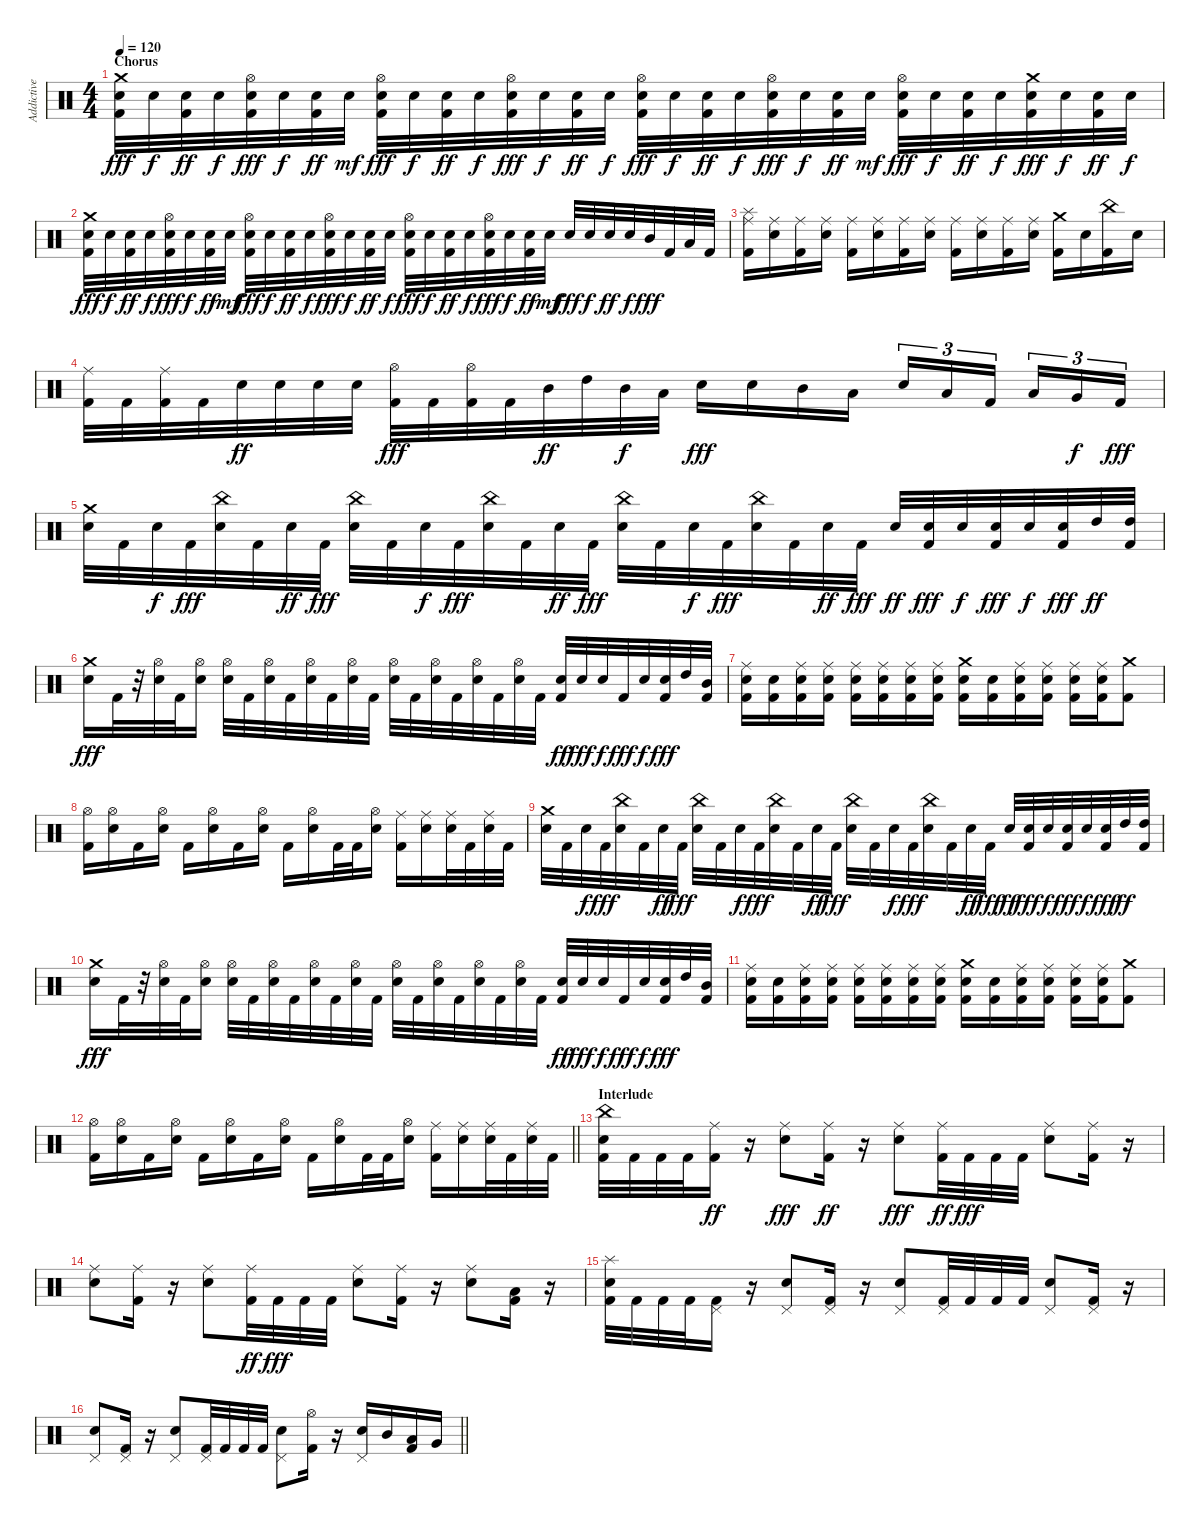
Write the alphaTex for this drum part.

\track ("Addictive Drums 07" "Addictive ") {instrument percussion}
\staff {score}
\articulation defaults
\ts (4 4)
\section ("" "Chorus")
\tempo 120
\clef neutral
\ks c
("Kick (hit) 2" "Snare (hit) 2" "Crash medium (hit)").32{dy fff} "Snare (hit) 2".32{dy f} ("Kick (hit) 2" "Snare (hit) 2").32{dy ff} "Snare (hit) 2".32{dy f} ("Kick (hit) 2" "Snare (hit) 2" "Hi-Hat (open)").32{dy fff} "Snare (hit) 2".32{dy f} ("Kick (hit) 2" "Snare (hit) 2").32{dy ff} "Snare (hit) 2".32{dy mf} ("Kick (hit) 2" "Snare (hit) 2" "Hi-Hat (open)").32{dy fff} "Snare (hit) 2".32{dy f} ("Kick (hit) 2" "Snare (hit) 2").32{dy ff} "Snare (hit) 2".32{dy f} ("Kick (hit) 2" "Snare (hit) 2" "Hi-Hat (open)").32{dy fff} "Snare (hit) 2".32{dy f} ("Kick (hit) 2" "Snare (hit) 2").32{dy ff} "Snare (hit) 2".32{dy f} ("Kick (hit) 2" "Snare (hit) 2" "Hi-Hat (open)").32{dy fff} "Snare (hit) 2".32{dy f} ("Kick (hit) 2" "Snare (hit) 2").32{dy ff} "Snare (hit) 2".32{dy f} ("Kick (hit) 2" "Snare (hit) 2" "Hi-Hat (open)").32{dy fff} "Snare (hit) 2".32{dy f} ("Kick (hit) 2" "Snare (hit) 2").32{dy ff} "Snare (hit) 2".32{dy mf} ("Kick (hit) 2" "Snare (hit) 2" "Hi-Hat (open)").32{dy fff} "Snare (hit) 2".32{dy f} ("Kick (hit) 2" "Snare (hit) 2").32{dy ff} "Snare (hit) 2".32{dy f} ("Kick (hit) 2" "Snare (hit) 2" "Crash medium (hit)").32{dy fff} "Snare (hit) 2".32{dy f} ("Kick (hit) 2" "Snare (hit) 2").32{dy ff} "Snare (hit) 2".32{dy f} |
("Kick (hit) 2" "Snare (hit) 2" "Crash medium (hit)").32{dy fff} "Snare (hit) 2".32{dy f} ("Kick (hit) 2" "Snare (hit) 2").32{dy ff} "Snare (hit) 2".32{dy f} ("Kick (hit) 2" "Snare (hit) 2" "Hi-Hat (open)").32{dy fff} "Snare (hit) 2".32{dy f} ("Kick (hit) 2" "Snare (hit) 2").32{dy ff} "Snare (hit) 2".32{dy mf} ("Kick (hit) 2" "Snare (hit) 2" "Hi-Hat (open)").32{dy fff} "Snare (hit) 2".32{dy f} ("Kick (hit) 2" "Snare (hit) 2").32{dy ff} "Snare (hit) 2".32{dy f} ("Kick (hit) 2" "Snare (hit) 2" "Hi-Hat (open)").32{dy fff} "Snare (hit) 2".32{dy f} ("Kick (hit) 2" "Snare (hit) 2").32{dy ff} "Snare (hit) 2".32{dy f} ("Kick (hit) 2" "Snare (hit) 2" "Hi-Hat (open)").32{dy fff} "Snare (hit) 2".32{dy f} ("Kick (hit) 2" "Snare (hit) 2").32{dy ff} "Snare (hit) 2".32{dy f} ("Kick (hit) 2" "Snare (hit) 2" "Hi-Hat (open)").32{dy fff} "Snare (hit) 2".32{dy f} ("Kick (hit) 2" "Snare (hit) 2").32{dy ff} "Snare (hit) 2".32{dy mf} "Snare (hit) 2".32{dy fff} "Snare (hit) 2".32{dy f} "Snare (hit) 2".32{dy ff} "Snare (hit) 2".32{dy f} "Mid Tom (hit)".32{dy fff} "Kick (hit) 2".32 "Low Tom (hit)".32 "Kick (hit) 2".32 |
("Kick (hit) 2" "Ride (middle)" "Splash (hit)").16 ("Snare (hit) 2" "Ride (middle)").16 ("Kick (hit) 2" "Ride (middle)").16 ("Snare (hit) 2" "Ride (middle)").16 ("Kick (hit) 2" "Ride (middle)").16 ("Snare (hit) 2" "Ride (middle)").16 ("Kick (hit) 2" "Ride (middle)").16 ("Snare (hit) 2" "Ride (middle)").16 ("Kick (hit) 2" "Ride (middle)").16 ("Snare (hit) 2" "Ride (middle)").16 ("Kick (hit) 2" "Ride (middle)").16 ("Snare (hit) 2" "Ride (middle)").16 ("Kick (hit) 2" "Crash medium (hit)").16 "Snare (hit) 2".16 ("Kick (hit) 2" "China (hit)").16 "Snare (hit) 2".16 |
("Kick (hit) 2" "Ride (middle)").32 "Kick (hit) 2".32 ("Kick (hit) 2" "Ride (middle)").32 "Kick (hit) 2".32 "Snare (hit) 2".32{dy ff} "Snare (hit) 2".32 "Snare (hit) 2".32 "Snare (hit) 2".32 ("Kick (hit) 2" "Hi-Hat (open)").32{dy fff} "Kick (hit) 2".32 ("Kick (hit) 2" "Hi-Hat (open)").32 "Kick (hit) 2".32 "Mid Tom (hit)".32{dy ff} "High Tom (hit)".32 "Mid Tom (hit)".32{dy f} "Low Tom (hit)".32 "Snare (hit) 2".16{dy fff} "Snare (hit) 2".16 "Mid Tom (hit)".16 "Low Tom (hit)".16 "Snare (hit) 2".16{tu (3 2)} "Low Tom (hit)".16{tu (3 2)} "Kick (hit) 2".16{tu (3 2) beam splitsecondary} "Low Tom (hit)".16{tu (3 2)} "Very Low Tom (hit)".16{tu (3 2) dy f} "Kick (hit) 2".16{tu (3 2) dy fff} |
("Snare (hit) 2" "Crash medium (hit)").32 "Kick (hit) 2".32 "Snare (hit) 2".32{dy f} "Kick (hit) 2".32{dy fff} ("Snare (hit) 2" "China (hit)").32 "Kick (hit) 2".32 "Snare (hit) 2".32{dy ff} "Kick (hit) 2".32{dy fff} ("Snare (hit) 2" "China (hit)").32 "Kick (hit) 2".32 "Snare (hit) 2".32{dy f} "Kick (hit) 2".32{dy fff} ("Snare (hit) 2" "China (hit)").32 "Kick (hit) 2".32 "Snare (hit) 2".32{dy ff} "Kick (hit) 2".32{dy fff} ("Snare (hit) 2" "China (hit)").32 "Kick (hit) 2".32 "Snare (hit) 2".32{dy f} "Kick (hit) 2".32{dy fff} ("Snare (hit) 2" "China (hit)").32 "Kick (hit) 2".32 "Snare (hit) 2".32{dy ff} "Kick (hit) 2".32{dy fff} "Snare (hit) 2".32{dy ff} ("Kick (hit) 2" "Snare (hit) 2").32{dy fff} "Snare (hit) 2".32{dy f} ("Kick (hit) 2" "Snare (hit) 2").32{dy fff} "Snare (hit) 2".32{dy f} ("Kick (hit) 2" "Snare (hit) 2").32{dy fff} "High Tom (hit)".32{dy ff} ("Kick (hit) 2" "High Tom (hit)").32 |
("Snare (hit) 2" "Crash medium (hit)").16{dy fff} "Kick (hit) 2".32 r.32 ("Snare (hit) 2" "Hi-Hat (open)").32 "Kick (hit) 2".32 ("Snare (hit) 2" "Hi-Hat (open)").16 ("Snare (hit) 2" "Hi-Hat (open)").32 "Kick (hit) 2".32 ("Snare (hit) 2" "Hi-Hat (open)").32 "Kick (hit) 2".32 ("Snare (hit) 2" "Hi-Hat (open)").32 "Kick (hit) 2".32 ("Snare (hit) 2" "Hi-Hat (open)").32 "Kick (hit) 2".32 ("Snare (hit) 2" "Hi-Hat (open)").32 "Kick (hit) 2".32 ("Snare (hit) 2" "Hi-Hat (open)").32 "Kick (hit) 2".32 ("Snare (hit) 2" "Hi-Hat (open)").32 "Kick (hit) 2".32 ("Snare (hit) 2" "Hi-Hat (open)").32 "Kick (hit) 2".32 ("Kick (hit) 2" "Snare (hit) 2").32{dy ff} "Snare (hit) 2".32{dy fff} "Snare (hit) 2".32{dy f} "Kick (hit) 2".32{dy fff} "Snare (hit) 2".32{dy f} ("Kick (hit) 2" "Snare (hit) 2").32{dy fff} "High Tom (hit)".32 ("Kick (hit) 2" "Mid Tom (hit)").32 |
("Kick (hit) 2" "Snare (hit) 2" "Ride (middle)").16 ("Kick (hit) 2" "Snare (hit) 2").16 ("Kick (hit) 2" "Snare (hit) 2" "Ride (middle)").16 ("Kick (hit) 2" "Snare (hit) 2" "Ride (middle)").16 ("Kick (hit) 2" "Snare (hit) 2" "Ride (middle)").16 ("Kick (hit) 2" "Snare (hit) 2" "Ride (middle)").16 ("Kick (hit) 2" "Snare (hit) 2" "Ride (middle)").16 ("Kick (hit) 2" "Snare (hit) 2" "Ride (middle)").16 ("Kick (hit) 2" "Snare (hit) 2" "Crash medium (hit)").16 ("Kick (hit) 2" "Snare (hit) 2").16 ("Kick (hit) 2" "Snare (hit) 2" "Ride (middle)").16 ("Kick (hit) 2" "Snare (hit) 2" "Ride (middle)").16 ("Kick (hit) 2" "Snare (hit) 2" "Ride (middle)").16 ("Kick (hit) 2" "Snare (hit) 2" "Ride (middle)").16 ("Kick (hit) 2" "Crash medium (hit)").8 |
("Kick (hit) 2" "Hi-Hat (open)").16 ("Snare (hit) 2" "Hi-Hat (open)").16 "Kick (hit) 2".16 ("Snare (hit) 2" "Hi-Hat (open)").16 "Kick (hit) 2".16 ("Snare (hit) 2" "Hi-Hat (open)").16 "Kick (hit) 2".16 ("Snare (hit) 2" "Hi-Hat (open)").16 "Kick (hit) 2".16 ("Snare (hit) 2" "Hi-Hat (open)").16 "Kick (hit) 2".32 "Kick (hit) 2".32 ("Snare (hit) 2" "Hi-Hat (open)").16 ("Kick (hit) 2" "Ride (middle)").16 ("Snare (hit) 2" "Ride (middle)").16 ("Snare (hit) 2" "Ride (middle)").32 "Kick (hit) 2".32 ("Snare (hit) 2" "Ride (middle)").32 "Kick (hit) 2".32 |
("Snare (hit) 2" "Crash medium (hit)").32 "Kick (hit) 2".32 "Snare (hit) 2".32{dy f} "Kick (hit) 2".32{dy fff} ("Snare (hit) 2" "China (hit)").32 "Kick (hit) 2".32 "Snare (hit) 2".32{dy ff} "Kick (hit) 2".32{dy fff} ("Snare (hit) 2" "China (hit)").32 "Kick (hit) 2".32 "Snare (hit) 2".32{dy f} "Kick (hit) 2".32{dy fff} ("Snare (hit) 2" "China (hit)").32 "Kick (hit) 2".32 "Snare (hit) 2".32{dy ff} "Kick (hit) 2".32{dy fff} ("Snare (hit) 2" "China (hit)").32 "Kick (hit) 2".32 "Snare (hit) 2".32{dy f} "Kick (hit) 2".32{dy fff} ("Snare (hit) 2" "China (hit)").32 "Kick (hit) 2".32 "Snare (hit) 2".32{dy ff} "Kick (hit) 2".32{dy fff} "Snare (hit) 2".32{dy ff} ("Kick (hit) 2" "Snare (hit) 2").32{dy fff} "Snare (hit) 2".32{dy f} ("Kick (hit) 2" "Snare (hit) 2").32{dy fff} "Snare (hit) 2".32{dy f} ("Kick (hit) 2" "Snare (hit) 2").32{dy fff} "High Tom (hit)".32{dy ff} ("Kick (hit) 2" "High Tom (hit)").32 |
("Snare (hit) 2" "Crash medium (hit)").16{dy fff} "Kick (hit) 2".32 r.32 ("Snare (hit) 2" "Hi-Hat (open)").32 "Kick (hit) 2".32 ("Snare (hit) 2" "Hi-Hat (open)").16 ("Snare (hit) 2" "Hi-Hat (open)").32 "Kick (hit) 2".32 ("Snare (hit) 2" "Hi-Hat (open)").32 "Kick (hit) 2".32 ("Snare (hit) 2" "Hi-Hat (open)").32 "Kick (hit) 2".32 ("Snare (hit) 2" "Hi-Hat (open)").32 "Kick (hit) 2".32 ("Snare (hit) 2" "Hi-Hat (open)").32 "Kick (hit) 2".32 ("Snare (hit) 2" "Hi-Hat (open)").32 "Kick (hit) 2".32 ("Snare (hit) 2" "Hi-Hat (open)").32 "Kick (hit) 2".32 ("Snare (hit) 2" "Hi-Hat (open)").32 "Kick (hit) 2".32 ("Kick (hit) 2" "Snare (hit) 2").32{dy ff} "Snare (hit) 2".32{dy fff} "Snare (hit) 2".32{dy f} "Kick (hit) 2".32{dy fff} "Snare (hit) 2".32{dy f} ("Kick (hit) 2" "Snare (hit) 2").32{dy fff} "High Tom (hit)".32 ("Kick (hit) 2" "Mid Tom (hit)").32 |
("Kick (hit) 2" "Snare (hit) 2" "Ride (middle)").16 ("Kick (hit) 2" "Snare (hit) 2").16 ("Kick (hit) 2" "Snare (hit) 2" "Ride (middle)").16 ("Kick (hit) 2" "Snare (hit) 2" "Ride (middle)").16 ("Kick (hit) 2" "Snare (hit) 2" "Ride (middle)").16 ("Kick (hit) 2" "Snare (hit) 2" "Ride (middle)").16 ("Kick (hit) 2" "Snare (hit) 2" "Ride (middle)").16 ("Kick (hit) 2" "Snare (hit) 2" "Ride (middle)").16 ("Kick (hit) 2" "Snare (hit) 2" "Crash medium (hit)").16 ("Kick (hit) 2" "Snare (hit) 2").16 ("Kick (hit) 2" "Snare (hit) 2" "Ride (middle)").16 ("Kick (hit) 2" "Snare (hit) 2" "Ride (middle)").16 ("Kick (hit) 2" "Snare (hit) 2" "Ride (middle)").16 ("Kick (hit) 2" "Snare (hit) 2" "Ride (middle)").16 ("Kick (hit) 2" "Crash medium (hit)").8 |
\barLineRight lightlight
("Kick (hit) 2" "Hi-Hat (open)").16 ("Snare (hit) 2" "Hi-Hat (open)").16 "Kick (hit) 2".16 ("Snare (hit) 2" "Hi-Hat (open)").16 "Kick (hit) 2".16 ("Snare (hit) 2" "Hi-Hat (open)").16 "Kick (hit) 2".16 ("Snare (hit) 2" "Hi-Hat (open)").16 "Kick (hit) 2".16 ("Snare (hit) 2" "Hi-Hat (open)").16 "Kick (hit) 2".32 "Kick (hit) 2".32 ("Snare (hit) 2" "Hi-Hat (open)").16 ("Kick (hit) 2" "Ride (middle)").16 ("Snare (hit) 2" "Ride (middle)").16 ("Snare (hit) 2" "Ride (middle)").32 "Kick (hit) 2".32 ("Snare (hit) 2" "Ride (middle)").32 "Kick (hit) 2".32 |
\section ("" "Interlude")
("Kick (hit) 2" "Snare (hit) 2" "China (hit)").32 "Kick (hit) 2".32 "Kick (hit) 2".32 "Kick (hit) 2".32 ("Kick (hit) 2" "Ride (middle)").16{dy ff} r.16 ("Snare (hit) 2" "Ride (middle)").8{dy fff} ("Kick (hit) 2" "Ride (middle)").16{dy ff} r.16 ("Snare (hit) 2" "Ride (middle)").8{dy fff} ("Kick (hit) 2" "Ride (middle)").32{dy ff} "Kick (hit) 2".32{dy fff} "Kick (hit) 2".32 "Kick (hit) 2".32 ("Snare (hit) 2" "Ride (middle)").8 ("Kick (hit) 2" "Ride (middle)").16 r.16 |
("Snare (hit) 2" "Ride (middle)").8 ("Kick (hit) 2" "Ride (middle)").16 r.16 ("Snare (hit) 2" "Ride (middle)").8 ("Kick (hit) 2" "Ride (middle)").32{dy ff} "Kick (hit) 2".32{dy fff} "Kick (hit) 2".32 "Kick (hit) 2".32 ("Snare (hit) 2" "Ride (middle)").8 ("Kick (hit) 2" "Ride (middle)").16 r.16 ("Snare (hit) 2" "Ride (middle)").8 ("Kick (hit) 2" "Low Tom (hit)").16 r.16 |
("Kick (hit) 2" "Snare (hit) 2" "Splash (hit)").32 "Kick (hit) 2".32 "Kick (hit) 2".32 "Kick (hit) 2".32 ("Kick (hit) 2" "Pedal Hi-Hat (hit)").16 r.16 ("Snare (hit) 2" "Pedal Hi-Hat (hit)").8 ("Kick (hit) 2" "Pedal Hi-Hat (hit)").16 r.16 ("Snare (hit) 2" "Pedal Hi-Hat (hit)").8 ("Kick (hit) 2" "Pedal Hi-Hat (hit)").32 "Kick (hit) 2".32 "Kick (hit) 2".32 "Kick (hit) 2".32 ("Snare (hit) 2" "Pedal Hi-Hat (hit)").8 ("Kick (hit) 2" "Pedal Hi-Hat (hit)").16 r.16 |
\barLineRight lightlight
("Snare (hit) 2" "Pedal Hi-Hat (hit)").8 ("Kick (hit) 2" "Pedal Hi-Hat (hit)").16 r.16 ("Snare (hit) 2" "Pedal Hi-Hat (hit)").8 ("Kick (hit) 2" "Pedal Hi-Hat (hit)").32 "Kick (hit) 2".32 "Kick (hit) 2".32 "Kick (hit) 2".32 ("Snare (hit) 2" "Pedal Hi-Hat (hit)").8 ("Kick (hit) 2" "Hi-Hat (open)").16 r.16 ("Snare (hit) 2" "Pedal Hi-Hat (hit)").16 "Mid Tom (hit)".16 ("Kick (hit) 2" "Low Tom (hit)").16 "Very Low Tom (hit)".16
